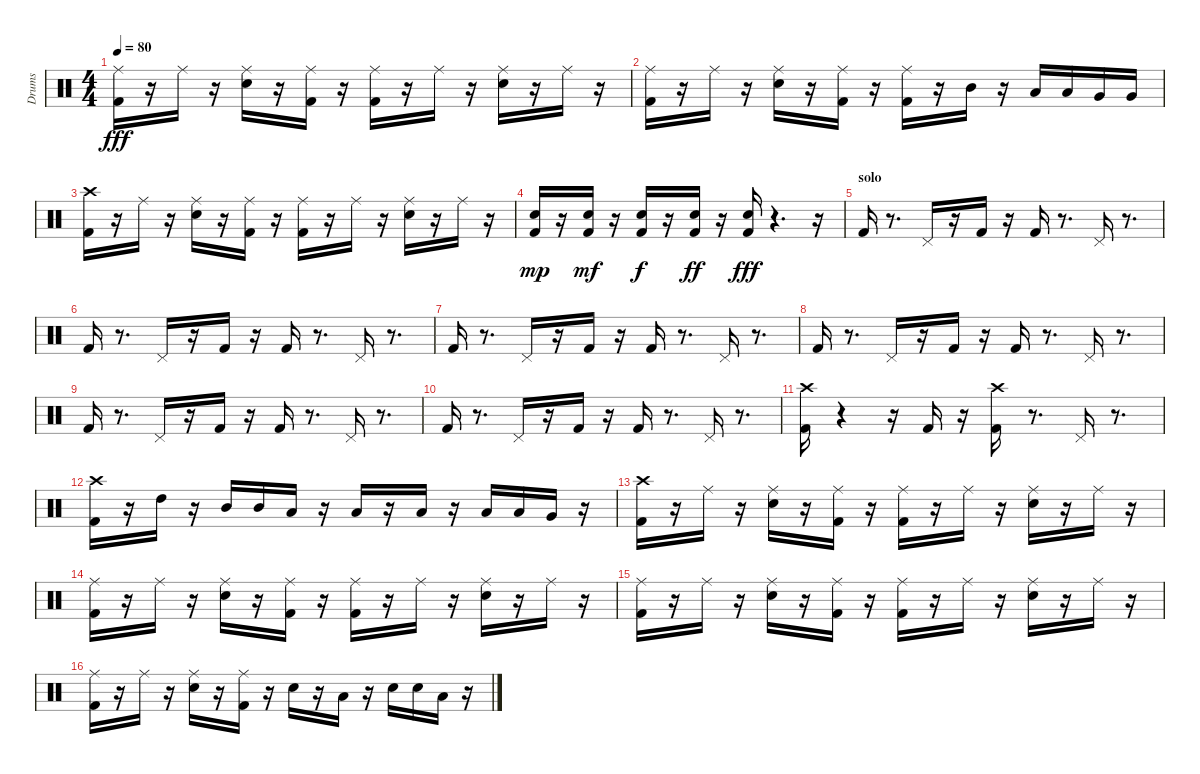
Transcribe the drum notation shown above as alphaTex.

\track ("Drums" "Drums") {instrument percussion}
\staff {score}
\articulation defaults
\ts (4 4)
\tempo 80
\clef neutral
\ks c
("Kick (hit) 2" "Ride (middle)").16{dy fff} r.16 "Ride (middle)".16 r.16 ("Electric Snare (hit)" "Ride (middle)").16 r.16 ("Kick (hit) 2" "Ride (middle)").16 r.16 ("Kick (hit) 2" "Ride (middle)").16 r.16 "Ride (middle)".16 r.16 ("Electric Snare (hit)" "Ride (middle)").16 r.16 "Ride (middle)".16 r.16 |
("Kick (hit) 2" "Ride (middle)").16 r.16 "Ride (middle)".16 r.16 ("Electric Snare (hit)" "Ride (middle)").16 r.16 ("Kick (hit) 2" "Ride (middle)").16 r.16 ("Ride (middle)" "Kick (hit) 2").16 r.16 "Mid Tom (hit)".16 r.16 "Low Tom (hit)".16 "Low Tom (hit)".16 "Very Low Tom (hit)".16 "Very Low Tom (hit)".16 |
("Kick (hit) 2" "Crash high (hit)").16 r.16 "Ride (middle)".16 r.16 ("Ride (middle)" "Electric Snare (hit)").16 r.16 ("Ride (middle)" "Kick (hit) 2").16 r.16 ("Ride (middle)" "Kick (hit) 2").16 r.16 "Ride (middle)".16 r.16 ("Ride (middle)" "Electric Snare (hit)").16 r.16 "Ride (middle)".16 r.16 |
("Electric Snare (hit)" "Kick (hit) 2").16{dy mp} r.16 ("Electric Snare (hit)" "Kick (hit) 2").16{dy mf} r.16 ("Electric Snare (hit)" "Kick (hit) 2").16{dy f} r.16 ("Electric Snare (hit)" "Kick (hit) 2").16{dy ff} r.16 ("Electric Snare (hit)" "Kick (hit) 2").16{dy fff} r.4{d} r.16 |
\section ("" "solo")
"Kick (hit) 2".16 r.8{d} "Pedal Hi-Hat (hit)".16 r.16 "Kick (hit) 2".16 r.16 "Kick (hit) 2".16 r.8{d} "Pedal Hi-Hat (hit)".16 r.8{d} |
"Kick (hit) 2".16 r.8{d} "Pedal Hi-Hat (hit)".16 r.16 "Kick (hit) 2".16 r.16 "Kick (hit) 2".16 r.8{d} "Pedal Hi-Hat (hit)".16 r.8{d} |
"Kick (hit) 2".16 r.8{d} "Pedal Hi-Hat (hit)".16 r.16 "Kick (hit) 2".16 r.16 "Kick (hit) 2".16 r.8{d} "Pedal Hi-Hat (hit)".16 r.8{d} |
"Kick (hit) 2".16 r.8{d} "Pedal Hi-Hat (hit)".16 r.16 "Kick (hit) 2".16 r.16 "Kick (hit) 2".16 r.8{d} "Pedal Hi-Hat (hit)".16 r.8{d} |
"Kick (hit) 2".16 r.8{d} "Pedal Hi-Hat (hit)".16 r.16 "Kick (hit) 2".16 r.16 "Kick (hit) 2".16 r.8{d} "Pedal Hi-Hat (hit)".16 r.8{d} |
"Kick (hit) 2".16 r.8{d} "Pedal Hi-Hat (hit)".16 r.16 "Kick (hit) 2".16 r.16 "Kick (hit) 2".16 r.8{d} "Pedal Hi-Hat (hit)".16 r.8{d} |
("Crash high (hit)" "Kick (hit) 2").16 r.4 r.16 "Kick (hit) 2".16 r.16 ("Crash high (hit)" "Kick (hit) 2").16 r.8{d} "Pedal Hi-Hat (hit)".16 r.8{d} |
("Crash high (hit)" "Kick (hit) 2").16 r.16 "High Tom (hit)".16 r.16 "Mid Tom (hit)".16 "Mid Tom (hit)".16 "Low Tom (hit)".16 r.16 "Low Tom (hit)".16 r.16 "Low Tom (hit)".16 r.16 "Low Tom (hit)".16 "Low Tom (hit)".16 "Very Low Tom (hit)".16 r.16 |
("Crash high (hit)" "Kick (hit) 2").16 r.16 "Ride (middle)".16 r.16 ("Electric Snare (hit)" "Ride (middle)").16 r.16 ("Kick (hit) 2" "Ride (middle)").16 r.16 ("Kick (hit) 2" "Ride (middle)").16 r.16 "Ride (middle)".16 r.16 ("Electric Snare (hit)" "Ride (middle)").16 r.16 "Ride (middle)".16 r.16 |
("Ride (middle)" "Kick (hit) 2").16 r.16 "Ride (middle)".16 r.16 ("Ride (middle)" "Electric Snare (hit)").16 r.16 ("Ride (middle)" "Kick (hit) 2").16 r.16 ("Ride (middle)" "Kick (hit) 2").16 r.16 "Ride (middle)".16 r.16 ("Ride (middle)" "Electric Snare (hit)").16 r.16 "Ride (middle)".16 r.16 |
("Ride (middle)" "Kick (hit) 2").16 r.16 "Ride (middle)".16 r.16 ("Ride (middle)" "Electric Snare (hit)").16 r.16 ("Ride (middle)" "Kick (hit) 2").16 r.16 ("Ride (middle)" "Kick (hit) 2").16 r.16 "Ride (middle)".16 r.16 ("Ride (middle)" "Electric Snare (hit)").16 r.16 "Ride (middle)".16 r.16 |
("Kick (hit) 2" "Ride (middle)").16 r.16 "Ride (middle)".16 r.16 ("Electric Snare (hit)" "Ride (middle)").16 r.16 ("Kick (hit) 2" "Ride (middle)").16 r.16 "Electric Snare (hit)".16 r.16 "Low Tom (hit)".16 r.16 "Electric Snare (hit)".16 "Electric Snare (hit)".16 "Low Tom (hit)".16 r.16
